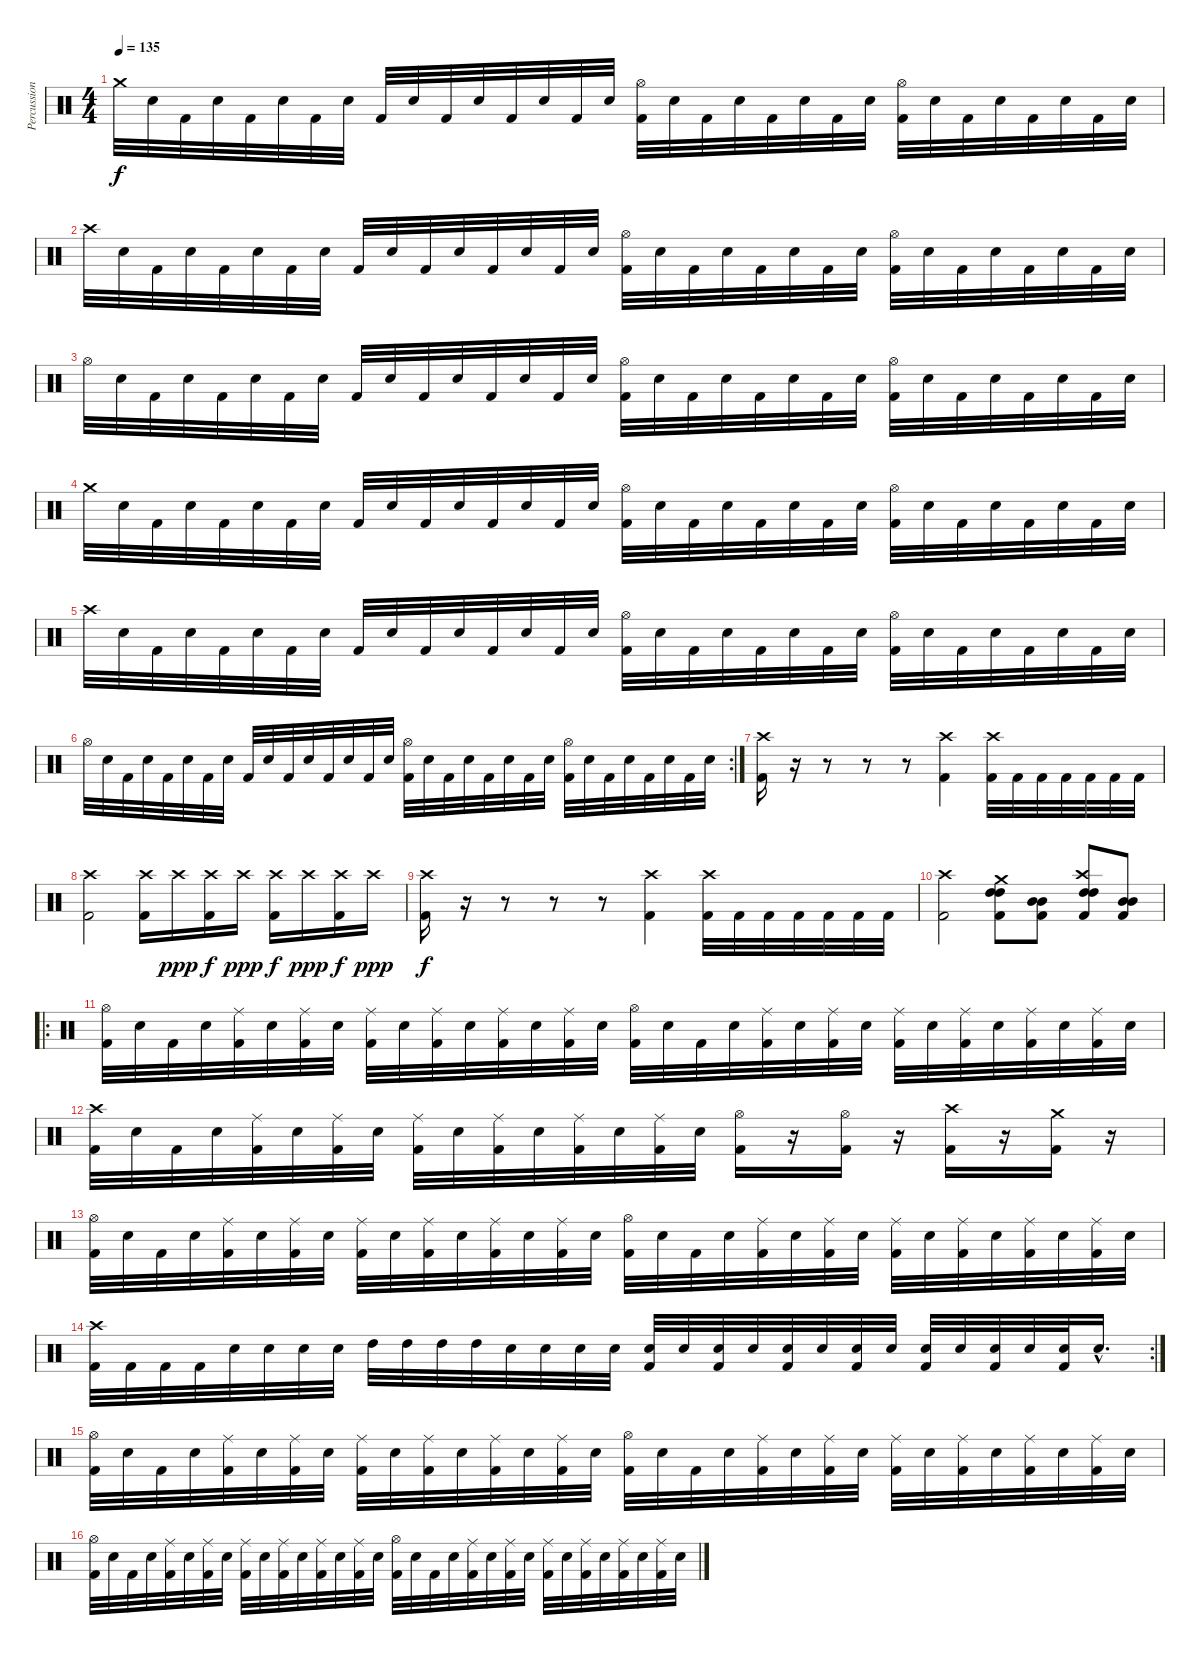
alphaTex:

\track ("Percussion" "Percussion") {instrument percussion}
\staff {score}
\articulation defaults
\ts (4 4)
\tempo 135
\clef neutral
\ks c "Crash medium (hit)".32{dy f} "Electric Snare (hit)".32 "Kick (hit) 2".32 "Electric Snare (hit)".32 "Kick (hit) 2".32 "Electric Snare (hit)".32 "Kick (hit) 2".32 "Electric Snare (hit)".32 "Kick (hit) 2".32 "Electric Snare (hit)".32 "Kick (hit) 2".32 "Electric Snare (hit)".32 "Kick (hit) 2".32 "Electric Snare (hit)".32 "Kick (hit) 2".32 "Electric Snare (hit)".32
("Hi-Hat (open)" "Kick (hit) 2").32 "Electric Snare (hit)".32 "Kick (hit) 2".32 "Electric Snare (hit)".32 "Kick (hit) 2".32 "Electric Snare (hit)".32 "Kick (hit) 2".32 "Electric Snare (hit)".32 ("Hi-Hat (open)" "Kick (hit) 2").32 "Electric Snare (hit)".32 "Kick (hit) 2".32 "Electric Snare (hit)".32 "Kick (hit) 2".32 "Electric Snare (hit)".32 "Kick (hit) 2".32 "Electric Snare (hit)".32 |
"Crash high (hit)".32 "Electric Snare (hit)".32 "Kick (hit) 2".32 "Electric Snare (hit)".32 "Kick (hit) 2".32 "Electric Snare (hit)".32 "Kick (hit) 2".32 "Electric Snare (hit)".32 "Kick (hit) 2".32 "Electric Snare (hit)".32 "Kick (hit) 2".32 "Electric Snare (hit)".32 "Kick (hit) 2".32 "Electric Snare (hit)".32 "Kick (hit) 2".32 "Electric Snare (hit)".32 ("Hi-Hat (open)" "Kick (hit) 2").32 "Electric Snare (hit)".32 "Kick (hit) 2".32 "Electric Snare (hit)".32 "Kick (hit) 2".32 "Electric Snare (hit)".32 "Kick (hit) 2".32 "Electric Snare (hit)".32 ("Hi-Hat (open)" "Kick (hit) 2").32 "Electric Snare (hit)".32 "Kick (hit) 2".32 "Electric Snare (hit)".32 "Kick (hit) 2".32 "Electric Snare (hit)".32 "Kick (hit) 2".32 "Electric Snare (hit)".32 |
"Hi-Hat (open)".32 "Electric Snare (hit)".32 "Kick (hit) 2".32 "Electric Snare (hit)".32 "Kick (hit) 2".32 "Electric Snare (hit)".32 "Kick (hit) 2".32 "Electric Snare (hit)".32 "Kick (hit) 2".32 "Electric Snare (hit)".32 "Kick (hit) 2".32 "Electric Snare (hit)".32 "Kick (hit) 2".32 "Electric Snare (hit)".32 "Kick (hit) 2".32 "Electric Snare (hit)".32 ("Hi-Hat (open)" "Kick (hit) 2").32 "Electric Snare (hit)".32 "Kick (hit) 2".32 "Electric Snare (hit)".32 "Kick (hit) 2".32 "Electric Snare (hit)".32 "Kick (hit) 2".32 "Electric Snare (hit)".32 ("Hi-Hat (open)" "Kick (hit) 2").32 "Electric Snare (hit)".32 "Kick (hit) 2".32 "Electric Snare (hit)".32 "Kick (hit) 2".32 "Electric Snare (hit)".32 "Kick (hit) 2".32 "Electric Snare (hit)".32 |
"Crash medium (hit)".32 "Electric Snare (hit)".32 "Kick (hit) 2".32 "Electric Snare (hit)".32 "Kick (hit) 2".32 "Electric Snare (hit)".32 "Kick (hit) 2".32 "Electric Snare (hit)".32 "Kick (hit) 2".32 "Electric Snare (hit)".32 "Kick (hit) 2".32 "Electric Snare (hit)".32 "Kick (hit) 2".32 "Electric Snare (hit)".32 "Kick (hit) 2".32 "Electric Snare (hit)".32 ("Hi-Hat (open)" "Kick (hit) 2").32 "Electric Snare (hit)".32 "Kick (hit) 2".32 "Electric Snare (hit)".32 "Kick (hit) 2".32 "Electric Snare (hit)".32 "Kick (hit) 2".32 "Electric Snare (hit)".32 ("Hi-Hat (open)" "Kick (hit) 2").32 "Electric Snare (hit)".32 "Kick (hit) 2".32 "Electric Snare (hit)".32 "Kick (hit) 2".32 "Electric Snare (hit)".32 "Kick (hit) 2".32 "Electric Snare (hit)".32 |
"Crash high (hit)".32 "Electric Snare (hit)".32 "Kick (hit) 2".32 "Electric Snare (hit)".32 "Kick (hit) 2".32 "Electric Snare (hit)".32 "Kick (hit) 2".32 "Electric Snare (hit)".32 "Kick (hit) 2".32 "Electric Snare (hit)".32 "Kick (hit) 2".32 "Electric Snare (hit)".32 "Kick (hit) 2".32 "Electric Snare (hit)".32 "Kick (hit) 2".32 "Electric Snare (hit)".32 ("Hi-Hat (open)" "Kick (hit) 2").32 "Electric Snare (hit)".32 "Kick (hit) 2".32 "Electric Snare (hit)".32 "Kick (hit) 2".32 "Electric Snare (hit)".32 "Kick (hit) 2".32 "Electric Snare (hit)".32 ("Hi-Hat (open)" "Kick (hit) 2").32 "Electric Snare (hit)".32 "Kick (hit) 2".32 "Electric Snare (hit)".32 "Kick (hit) 2".32 "Electric Snare (hit)".32 "Kick (hit) 2".32 "Electric Snare (hit)".32 |
\rc 2 "Hi-Hat (open)".32 "Electric Snare (hit)".32 "Kick (hit) 2".32 "Electric Snare (hit)".32 "Kick (hit) 2".32 "Electric Snare (hit)".32 "Kick (hit) 2".32 "Electric Snare (hit)".32 "Kick (hit) 2".32 "Electric Snare (hit)".32 "Kick (hit) 2".32 "Electric Snare (hit)".32 "Kick (hit) 2".32 "Electric Snare (hit)".32 "Kick (hit) 2".32 "Electric Snare (hit)".32
("Hi-Hat (open)" "Kick (hit) 2").32 "Electric Snare (hit)".32 "Kick (hit) 2".32 "Electric Snare (hit)".32 "Kick (hit) 2".32 "Electric Snare (hit)".32 "Kick (hit) 2".32 "Electric Snare (hit)".32 ("Hi-Hat (open)" "Kick (hit) 2").32 "Electric Snare (hit)".32 "Kick (hit) 2".32 "Electric Snare (hit)".32 "Kick (hit) 2".32 "Electric Snare (hit)".32 "Kick (hit) 2".32 "Electric Snare (hit)".32 |
("Crash high (hit)" "Kick (hit) 2").16 r.16 r.8 r.8 r.8 ("Crash high (hit)" "Kick (hit) 2").4 ("Crash high (hit)" "Kick (hit) 2").32 "Kick (hit) 2".32 "Kick (hit) 2".32 "Kick (hit) 2".32 "Kick (hit) 2".32 "Kick (hit) 2".32 "Kick (hit) 2".32 |
("Crash high (hit)" "Kick (hit) 2").2 ("Crash high (hit)" "Kick (hit) 2").16 "Crash high (hit)".16{dy ppp} ("Crash high (hit)" "Kick (hit) 2").16{dy f} "Crash high (hit)".16{dy ppp} ("Crash high (hit)" "Kick (hit) 2").16{dy f} "Crash high (hit)".16{dy ppp} ("Crash high (hit)" "Kick (hit) 2").16{dy f} "Crash high (hit)".16{dy ppp} |
("Crash high (hit)" "Kick (hit) 2").16{dy f} r.16 r.8 r.8 r.8 ("Crash high (hit)" "Kick (hit) 2").4 ("Crash high (hit)" "Kick (hit) 2").32 "Kick (hit) 2".32 "Kick (hit) 2".32 "Kick (hit) 2".32 "Kick (hit) 2".32 "Kick (hit) 2".32 "Kick (hit) 2".32 |
("Kick (hit) 2" "Crash high (hit)").2 ("Crash medium (hit)" "High Tom (hit)" "High Tom (hit)" "Kick (hit) 2").8 ("Mid Tom (hit)" "Mid Tom (hit)" "Kick (hit) 2").8 ("Crash high (hit)" "High Tom (hit)" "High Tom (hit)" "Kick (hit) 2").8 ("Mid Tom (hit)" "Mid Tom (hit)" "Kick (hit) 2").8 |
\ro
("Hi-Hat (open)" "Kick (hit) 2").32 "Electric Snare (hit)".32 "Kick (hit) 2".32 "Electric Snare (hit)".32 ("Ride (middle)" "Kick (hit) 2").32 "Electric Snare (hit)".32 ("Ride (middle)" "Kick (hit) 2").32 "Electric Snare (hit)".32 ("Ride (middle)" "Kick (hit) 2").32 "Electric Snare (hit)".32 ("Ride (middle)" "Kick (hit) 2").32 "Electric Snare (hit)".32 ("Ride (middle)" "Kick (hit) 2").32 "Electric Snare (hit)".32 ("Ride (middle)" "Kick (hit) 2").32 "Electric Snare (hit)".32 ("Hi-Hat (open)" "Kick (hit) 2").32 "Electric Snare (hit)".32 "Kick (hit) 2".32 "Electric Snare (hit)".32 ("Ride (middle)" "Kick (hit) 2").32 "Electric Snare (hit)".32 ("Ride (middle)" "Kick (hit) 2").32 "Electric Snare (hit)".32 ("Ride (middle)" "Kick (hit) 2").32 "Electric Snare (hit)".32 ("Ride (middle)" "Kick (hit) 2").32 "Electric Snare (hit)".32 ("Ride (middle)" "Kick (hit) 2").32 "Electric Snare (hit)".32 ("Ride (middle)" "Kick (hit) 2").32 "Electric Snare (hit)".32 |
("Crash high (hit)" "Kick (hit) 2").32 "Electric Snare (hit)".32 "Kick (hit) 2".32 "Electric Snare (hit)".32 ("Ride (middle)" "Kick (hit) 2").32 "Electric Snare (hit)".32 ("Ride (middle)" "Kick (hit) 2").32 "Electric Snare (hit)".32 ("Ride (middle)" "Kick (hit) 2").32 "Electric Snare (hit)".32 ("Ride (middle)" "Kick (hit) 2").32 "Electric Snare (hit)".32 ("Ride (middle)" "Kick (hit) 2").32 "Electric Snare (hit)".32 ("Ride (middle)" "Kick (hit) 2").32 "Electric Snare (hit)".32 ("Hi-Hat (open)" "Kick (hit) 2").16 r.16 ("Hi-Hat (open)" "Kick (hit) 2").16 r.16 ("Crash high (hit)" "Kick (hit) 2").16 r.16 ("Crash medium (hit)" "Kick (hit) 2").16 r.16 |
("Hi-Hat (open)" "Kick (hit) 2").32 "Electric Snare (hit)".32 "Kick (hit) 2".32 "Electric Snare (hit)".32 ("Ride (middle)" "Kick (hit) 2").32 "Electric Snare (hit)".32 ("Ride (middle)" "Kick (hit) 2").32 "Electric Snare (hit)".32 ("Ride (middle)" "Kick (hit) 2").32 "Electric Snare (hit)".32 ("Ride (middle)" "Kick (hit) 2").32 "Electric Snare (hit)".32 ("Ride (middle)" "Kick (hit) 2").32 "Electric Snare (hit)".32 ("Ride (middle)" "Kick (hit) 2").32 "Electric Snare (hit)".32 ("Hi-Hat (open)" "Kick (hit) 2").32 "Electric Snare (hit)".32 "Kick (hit) 2".32 "Electric Snare (hit)".32 ("Ride (middle)" "Kick (hit) 2").32 "Electric Snare (hit)".32 ("Ride (middle)" "Kick (hit) 2").32 "Electric Snare (hit)".32 ("Ride (middle)" "Kick (hit) 2").32 "Electric Snare (hit)".32 ("Ride (middle)" "Kick (hit) 2").32 "Electric Snare (hit)".32 ("Ride (middle)" "Kick (hit) 2").32 "Electric Snare (hit)".32 ("Ride (middle)" "Kick (hit) 2").32 "Electric Snare (hit)".32 |
\rc 2
("Crash high (hit)" "Kick (hit) 2").32 "Kick (hit) 2".32 "Kick (hit) 2".32 "Kick (hit) 2".32 "Electric Snare (hit)".32 "Electric Snare (hit)".32 "Electric Snare (hit)".32 "Electric Snare (hit)".32 "High Tom (hit)".32 "High Tom (hit)".32 "High Tom (hit)".32 "High Tom (hit)".32 "Electric Snare (hit)".32 "Electric Snare (hit)".32 "Electric Snare (hit)".32 "Electric Snare (hit)".32 ("Electric Snare (hit)" "Kick (hit) 2").32 "Electric Snare (hit)".32 ("Electric Snare (hit)" "Kick (hit) 2").32 "Electric Snare (hit)".32 ("Electric Snare (hit)" "Kick (hit) 2").32 "Electric Snare (hit)".32 ("Electric Snare (hit)" "Kick (hit) 2").32 "Electric Snare (hit)".32 ("Electric Snare (hit)" "Kick (hit) 2").32 "Electric Snare (hit)".32 ("Electric Snare (hit)" "Kick (hit) 2").32 "Electric Snare (hit)".32 ("Electric Snare (hit)" "Kick (hit) 2").32 "Electric Snare (hit)"{hac}.16{d} |
("Hi-Hat (open)" "Kick (hit) 2").32 "Electric Snare (hit)".32 "Kick (hit) 2".32 "Electric Snare (hit)".32 ("Ride (middle)" "Kick (hit) 2").32 "Electric Snare (hit)".32 ("Ride (middle)" "Kick (hit) 2").32 "Electric Snare (hit)".32 ("Ride (middle)" "Kick (hit) 2").32 "Electric Snare (hit)".32 ("Ride (middle)" "Kick (hit) 2").32 "Electric Snare (hit)".32 ("Ride (middle)" "Kick (hit) 2").32 "Electric Snare (hit)".32 ("Ride (middle)" "Kick (hit) 2").32 "Electric Snare (hit)".32 ("Hi-Hat (open)" "Kick (hit) 2").32 "Electric Snare (hit)".32 "Kick (hit) 2".32 "Electric Snare (hit)".32 ("Ride (middle)" "Kick (hit) 2").32 "Electric Snare (hit)".32 ("Ride (middle)" "Kick (hit) 2").32 "Electric Snare (hit)".32 ("Ride (middle)" "Kick (hit) 2").32 "Electric Snare (hit)".32 ("Ride (middle)" "Kick (hit) 2").32 "Electric Snare (hit)".32 ("Ride (middle)" "Kick (hit) 2").32 "Electric Snare (hit)".32 ("Ride (middle)" "Kick (hit) 2").32 "Electric Snare (hit)".32 |
("Hi-Hat (open)" "Kick (hit) 2").32 "Electric Snare (hit)".32 "Kick (hit) 2".32 "Electric Snare (hit)".32 ("Ride (middle)" "Kick (hit) 2").32 "Electric Snare (hit)".32 ("Ride (middle)" "Kick (hit) 2").32 "Electric Snare (hit)".32 ("Ride (middle)" "Kick (hit) 2").32 "Electric Snare (hit)".32 ("Ride (middle)" "Kick (hit) 2").32 "Electric Snare (hit)".32 ("Ride (middle)" "Kick (hit) 2").32 "Electric Snare (hit)".32 ("Ride (middle)" "Kick (hit) 2").32 "Electric Snare (hit)".32 ("Hi-Hat (open)" "Kick (hit) 2").32 "Electric Snare (hit)".32 "Kick (hit) 2".32 "Electric Snare (hit)".32 ("Ride (middle)" "Kick (hit) 2").32 "Electric Snare (hit)".32 ("Ride (middle)" "Kick (hit) 2").32 "Electric Snare (hit)".32 ("Ride (middle)" "Kick (hit) 2").32 "Electric Snare (hit)".32 ("Ride (middle)" "Kick (hit) 2").32 "Electric Snare (hit)".32 ("Ride (middle)" "Kick (hit) 2").32 "Electric Snare (hit)".32 ("Ride (middle)" "Kick (hit) 2").32 "Electric Snare (hit)".32
